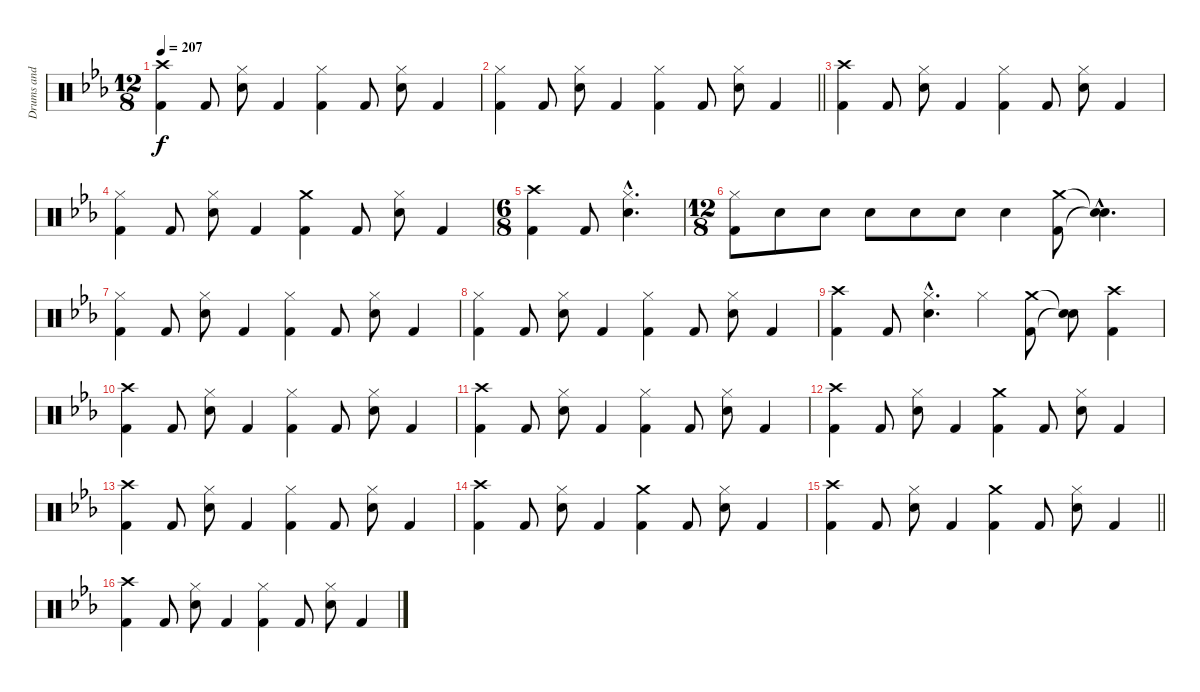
\track ("Drums and percussion" "Drums and ") {instrument percussion}
\staff {score}
\articulation defaults
\ts (12 8)
\tempo 207
\clef neutral
\ks eb
("Crash high (hit)" "Kick (hit) 2").4{dy f} "Kick (hit) 2".8 ("Hi-Hat (closed)" "Snare (hit) 2").8 "Kick (hit) 2".4 ("Hi-Hat (closed)" "Kick (hit) 2").4 "Kick (hit) 2".8 ("Hi-Hat (closed)" "Snare (hit) 2").8 "Kick (hit) 2".4 |
\barLineRight lightlight
("Hi-Hat (closed)" "Kick (hit) 2").4 "Kick (hit) 2".8 ("Hi-Hat (closed)" "Snare (hit) 2").8 "Kick (hit) 2".4 ("Hi-Hat (closed)" "Kick (hit) 2").4 "Kick (hit) 2".8 ("Hi-Hat (closed)" "Snare (hit) 2").8 "Kick (hit) 2".4 |
("Crash high (hit)" "Kick (hit) 2").4 "Kick (hit) 2".8 ("Hi-Hat (closed)" "Snare (hit) 2").8 "Kick (hit) 2".4 ("Hi-Hat (closed)" "Kick (hit) 2").4 "Kick (hit) 2".8 ("Hi-Hat (closed)" "Snare (hit) 2").8 "Kick (hit) 2".4 |
("Hi-Hat (closed)" "Kick (hit) 2").4 "Kick (hit) 2".8 ("Hi-Hat (closed)" "Snare (hit) 2").8 "Kick (hit) 2".4 ("Crash medium (hit)" "Kick (hit) 2").4 "Kick (hit) 2".8 ("Hi-Hat (closed)" "Snare (hit) 2").8 "Kick (hit) 2".4 |
\ts (6 8)
("Crash high (hit)" "Kick (hit) 2").4 "Kick (hit) 2".8 ("Hi-Hat (closed)"{hac} "Snare (hit) 2"{hac}).4{d} |
\ts (12 8)
("Hi-Hat (closed)" "Kick (hit) 2").8 "Snare (hit) 2".8 "Snare (hit) 2".8 "Snare (hit) 2".8 "Snare (hit) 2".8 "Snare (hit) 2".8 "Snare (hit) 2".4 ("Crash medium (hit)" "Kick (hit) 2").8 ("Snare (hit)"{hac t} "Snare (hit)"{hac t}).4{d} |
("Hi-Hat (closed)" "Kick (hit) 2").4 "Kick (hit) 2".8 ("Hi-Hat (closed)" "Snare (hit) 2").8 "Kick (hit) 2".4 ("Hi-Hat (closed)" "Kick (hit) 2").4 "Kick (hit) 2".8 ("Hi-Hat (closed)" "Snare (hit) 2").8 "Kick (hit) 2".4 |
("Hi-Hat (closed)" "Kick (hit) 2").4 "Kick (hit) 2".8 ("Hi-Hat (closed)" "Snare (hit) 2").8 "Kick (hit) 2".4 ("Hi-Hat (closed)" "Kick (hit) 2").4 "Kick (hit) 2".8 ("Hi-Hat (closed)" "Snare (hit) 2").8 "Kick (hit) 2".4 |
("Crash high (hit)" "Kick (hit) 2").4 "Kick (hit) 2".8 ("Hi-Hat (closed)"{hac} "Snare (hit) 2"{hac}).4{d} "Hi-Hat (closed)".4 ("Crash medium (hit)" "Kick (hit) 2").8 ("Snare (hit)"{t} "Snare (hit)"{t}).8 ("Crash high (hit)" "Kick (hit) 2").4 |
("Crash high (hit)" "Kick (hit) 2").4 "Kick (hit) 2".8 ("Hi-Hat (closed)" "Snare (hit) 2").8 "Kick (hit) 2".4 ("Hi-Hat (closed)" "Kick (hit) 2").4 "Kick (hit) 2".8 ("Hi-Hat (closed)" "Snare (hit) 2").8 "Kick (hit) 2".4 |
("Crash high (hit)" "Kick (hit) 2").4 "Kick (hit) 2".8 ("Hi-Hat (closed)" "Snare (hit) 2").8 "Kick (hit) 2".4 ("Hi-Hat (closed)" "Kick (hit) 2").4 "Kick (hit) 2".8 ("Hi-Hat (closed)" "Snare (hit) 2").8 "Kick (hit) 2".4 |
("Crash high (hit)" "Kick (hit) 2").4 "Kick (hit) 2".8 ("Hi-Hat (closed)" "Snare (hit) 2").8 "Kick (hit) 2".4 ("Crash medium (hit)" "Kick (hit) 2").4 "Kick (hit) 2".8 ("Hi-Hat (closed)" "Snare (hit) 2").8 "Kick (hit) 2".4 |
("Crash high (hit)" "Kick (hit) 2").4 "Kick (hit) 2".8 ("Hi-Hat (closed)" "Snare (hit) 2").8 "Kick (hit) 2".4 ("Hi-Hat (closed)" "Kick (hit) 2").4 "Kick (hit) 2".8 ("Hi-Hat (closed)" "Snare (hit) 2").8 "Kick (hit) 2".4 |
("Crash high (hit)" "Kick (hit) 2").4 "Kick (hit) 2".8 ("Hi-Hat (closed)" "Snare (hit) 2").8 "Kick (hit) 2".4 ("Crash medium (hit)" "Kick (hit) 2").4 "Kick (hit) 2".8 ("Hi-Hat (closed)" "Snare (hit) 2").8 "Kick (hit) 2".4 |
\barLineRight lightlight
("Crash high (hit)" "Kick (hit) 2").4 "Kick (hit) 2".8 ("Hi-Hat (closed)" "Snare (hit) 2").8 "Kick (hit) 2".4 ("Crash medium (hit)" "Kick (hit) 2").4 "Kick (hit) 2".8 ("Hi-Hat (closed)" "Snare (hit) 2").8 "Kick (hit) 2".4 |
("Crash high (hit)" "Kick (hit) 2").4 "Kick (hit) 2".8 ("Hi-Hat (closed)" "Snare (hit) 2").8 "Kick (hit) 2".4 ("Hi-Hat (closed)" "Kick (hit) 2").4 "Kick (hit) 2".8 ("Hi-Hat (closed)" "Snare (hit) 2").8 "Kick (hit) 2".4
